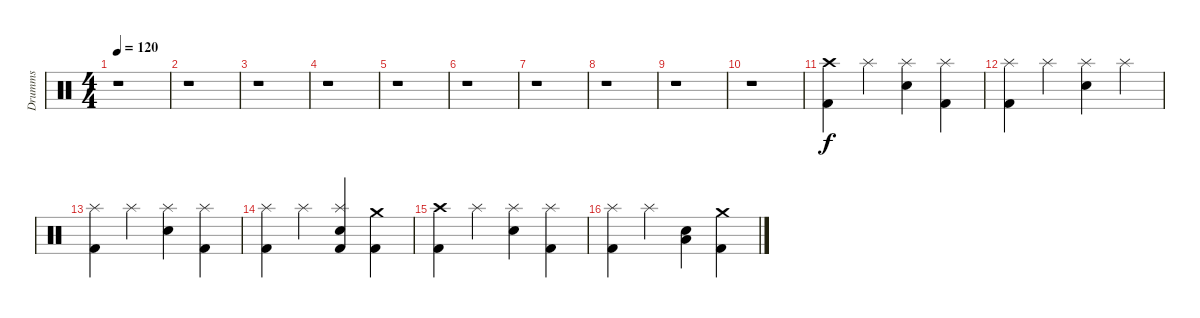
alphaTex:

\track ("Drumms" "Drumms") {instrument percussion}
\staff {score}
\articulation defaults
\ts (4 4)
\tempo 120
\clef neutral
\ks c
r.1{dy f} |
r.1 |
r.1 |
r.1 |
r.1 |
r.1 |
r.1 |
r.1 |
r.1 |
r.1 |
("Kick (hit) 2" "Crash high (hit)").4 "Splash (hit)".4 ("Splash (hit)" "Snare (hit) 2").4 ("Kick (hit) 2" "Splash (hit)").4 |
("Kick (hit) 2" "Splash (hit)").4 "Splash (hit)".4 ("Splash (hit)" "Snare (hit) 2").4 "Splash (hit)".4 |
("Kick (hit) 2" "Splash (hit)").4 "Splash (hit)".4 ("Splash (hit)" "Snare (hit) 2").4 ("Kick (hit) 2" "Splash (hit)").4 |
("Kick (hit) 2" "Splash (hit)").4 "Splash (hit)".4 ("Kick (hit) 2" "Splash (hit)" "Snare (hit) 2").4 ("Kick (hit) 2" "Crash medium (hit)").4 |
("Kick (hit) 2" "Crash high (hit)").4 "Splash (hit)".4 ("Splash (hit)" "Snare (hit) 2").4 ("Kick (hit) 2" "Splash (hit)").4 |
("Kick (hit) 2" "Splash (hit)").4 "Splash (hit)".4 ("Low Tom (hit)" "Snare (hit) 2").4 ("Kick (hit) 2" "Crash medium (hit)").4
